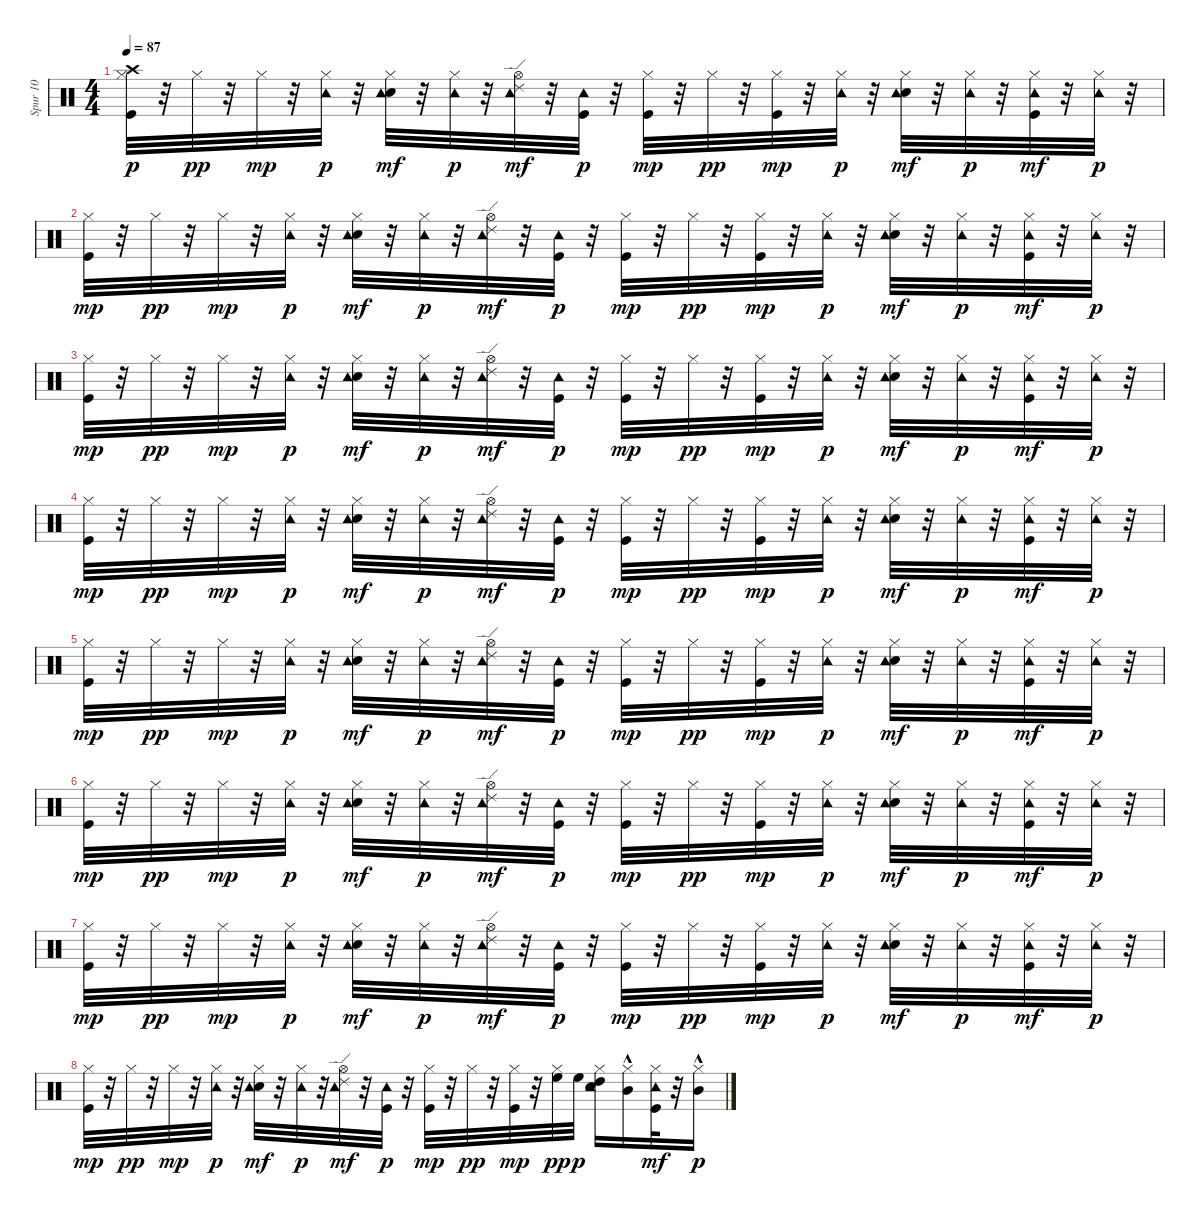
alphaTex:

\track ("Spur 10" "Spur 10") {instrument percussion}
\staff {score}
\articulation defaults
\ts (4 4)
\tempo 87
\clef neutral
\ks c
("Kick (hit)" "Hi-Hat (closed)" "Crash high (hit)").32{dy p} r.32 "Hi-Hat (closed)".32{dy pp} r.32 "Hi-Hat (closed)".32{dy mp} r.32 ("Hi-Hat (closed)" "Tambourine (hit)").32{dy p} r.32 ("Electric Snare (hit)" "Hi-Hat (closed)" "Tambourine (hit)").32{dy mf} r.32 ("Hi-Hat (closed)" "Tambourine (hit)").32{dy p} r.32 ("Hi-Hat (open)" "Tambourine (hit)" "Ride (edge) 2").32{dy mf} r.32 ("Kick (hit)" "Tambourine (hit)").32{dy p} r.32 ("Kick (hit)" "Hi-Hat (closed)").32{dy mp} r.32 "Hi-Hat (closed)".32{dy pp} r.32 ("Kick (hit)" "Hi-Hat (closed)").32{dy mp} r.32 ("Hi-Hat (closed)" "Tambourine (hit)").32{dy p} r.32 ("Electric Snare (hit)" "Hi-Hat (closed)" "Tambourine (hit)").32{dy mf} r.32 ("Hi-Hat (closed)" "Tambourine (hit)").32{dy p} r.32 ("Kick (hit)" "Hi-Hat (closed)" "Tambourine (hit)").32{dy mf} r.32 ("Hi-Hat (closed)" "Tambourine (hit)").32{dy p} r.32 |
("Kick (hit)" "Hi-Hat (closed)").32{dy mp} r.32 "Hi-Hat (closed)".32{dy pp} r.32 "Hi-Hat (closed)".32{dy mp} r.32 ("Hi-Hat (closed)" "Tambourine (hit)").32{dy p} r.32 ("Electric Snare (hit)" "Hi-Hat (closed)" "Tambourine (hit)").32{dy mf} r.32 ("Hi-Hat (closed)" "Tambourine (hit)").32{dy p} r.32 ("Hi-Hat (open)" "Tambourine (hit)" "Ride (edge) 2").32{dy mf} r.32 ("Kick (hit)" "Tambourine (hit)").32{dy p} r.32 ("Kick (hit)" "Hi-Hat (closed)").32{dy mp} r.32 "Hi-Hat (closed)".32{dy pp} r.32 ("Kick (hit)" "Hi-Hat (closed)").32{dy mp} r.32 ("Hi-Hat (closed)" "Tambourine (hit)").32{dy p} r.32 ("Electric Snare (hit)" "Hi-Hat (closed)" "Tambourine (hit)").32{dy mf} r.32 ("Hi-Hat (closed)" "Tambourine (hit)").32{dy p} r.32 ("Kick (hit)" "Hi-Hat (closed)" "Tambourine (hit)").32{dy mf} r.32 ("Hi-Hat (closed)" "Tambourine (hit)").32{dy p} r.32 |
("Kick (hit)" "Hi-Hat (closed)").32{dy mp} r.32 "Hi-Hat (closed)".32{dy pp} r.32 "Hi-Hat (closed)".32{dy mp} r.32 ("Hi-Hat (closed)" "Tambourine (hit)").32{dy p} r.32 ("Electric Snare (hit)" "Hi-Hat (closed)" "Tambourine (hit)").32{dy mf} r.32 ("Hi-Hat (closed)" "Tambourine (hit)").32{dy p} r.32 ("Hi-Hat (open)" "Tambourine (hit)" "Ride (edge) 2").32{dy mf} r.32 ("Kick (hit)" "Tambourine (hit)").32{dy p} r.32 ("Kick (hit)" "Hi-Hat (closed)").32{dy mp} r.32 "Hi-Hat (closed)".32{dy pp} r.32 ("Kick (hit)" "Hi-Hat (closed)").32{dy mp} r.32 ("Hi-Hat (closed)" "Tambourine (hit)").32{dy p} r.32 ("Electric Snare (hit)" "Hi-Hat (closed)" "Tambourine (hit)").32{dy mf} r.32 ("Hi-Hat (closed)" "Tambourine (hit)").32{dy p} r.32 ("Kick (hit)" "Hi-Hat (closed)" "Tambourine (hit)").32{dy mf} r.32 ("Hi-Hat (closed)" "Tambourine (hit)").32{dy p} r.32 |
("Kick (hit)" "Hi-Hat (closed)").32{dy mp} r.32 "Hi-Hat (closed)".32{dy pp} r.32 "Hi-Hat (closed)".32{dy mp} r.32 ("Hi-Hat (closed)" "Tambourine (hit)").32{dy p} r.32 ("Electric Snare (hit)" "Hi-Hat (closed)" "Tambourine (hit)").32{dy mf} r.32 ("Hi-Hat (closed)" "Tambourine (hit)").32{dy p} r.32 ("Hi-Hat (open)" "Tambourine (hit)" "Ride (edge) 2").32{dy mf} r.32 ("Kick (hit)" "Tambourine (hit)").32{dy p} r.32 ("Kick (hit)" "Hi-Hat (closed)").32{dy mp} r.32 "Hi-Hat (closed)".32{dy pp} r.32 ("Kick (hit)" "Hi-Hat (closed)").32{dy mp} r.32 ("Hi-Hat (closed)" "Tambourine (hit)").32{dy p} r.32 ("Electric Snare (hit)" "Hi-Hat (closed)" "Tambourine (hit)").32{dy mf} r.32 ("Hi-Hat (closed)" "Tambourine (hit)").32{dy p} r.32 ("Kick (hit)" "Hi-Hat (closed)" "Tambourine (hit)").32{dy mf} r.32 ("Hi-Hat (closed)" "Tambourine (hit)").32{dy p} r.32 |
("Kick (hit)" "Hi-Hat (closed)").32{dy mp} r.32 "Hi-Hat (closed)".32{dy pp} r.32 "Hi-Hat (closed)".32{dy mp} r.32 ("Hi-Hat (closed)" "Tambourine (hit)").32{dy p} r.32 ("Electric Snare (hit)" "Hi-Hat (closed)" "Tambourine (hit)").32{dy mf} r.32 ("Hi-Hat (closed)" "Tambourine (hit)").32{dy p} r.32 ("Hi-Hat (open)" "Tambourine (hit)" "Ride (edge) 2").32{dy mf} r.32 ("Kick (hit)" "Tambourine (hit)").32{dy p} r.32 ("Kick (hit)" "Hi-Hat (closed)").32{dy mp} r.32 "Hi-Hat (closed)".32{dy pp} r.32 ("Kick (hit)" "Hi-Hat (closed)").32{dy mp} r.32 ("Hi-Hat (closed)" "Tambourine (hit)").32{dy p} r.32 ("Electric Snare (hit)" "Hi-Hat (closed)" "Tambourine (hit)").32{dy mf} r.32 ("Hi-Hat (closed)" "Tambourine (hit)").32{dy p} r.32 ("Kick (hit)" "Hi-Hat (closed)" "Tambourine (hit)").32{dy mf} r.32 ("Hi-Hat (closed)" "Tambourine (hit)").32{dy p} r.32 |
("Kick (hit)" "Hi-Hat (closed)").32{dy mp} r.32 "Hi-Hat (closed)".32{dy pp} r.32 "Hi-Hat (closed)".32{dy mp} r.32 ("Hi-Hat (closed)" "Tambourine (hit)").32{dy p} r.32 ("Electric Snare (hit)" "Hi-Hat (closed)" "Tambourine (hit)").32{dy mf} r.32 ("Hi-Hat (closed)" "Tambourine (hit)").32{dy p} r.32 ("Hi-Hat (open)" "Tambourine (hit)" "Ride (edge) 2").32{dy mf} r.32 ("Kick (hit)" "Tambourine (hit)").32{dy p} r.32 ("Kick (hit)" "Hi-Hat (closed)").32{dy mp} r.32 "Hi-Hat (closed)".32{dy pp} r.32 ("Kick (hit)" "Hi-Hat (closed)").32{dy mp} r.32 ("Hi-Hat (closed)" "Tambourine (hit)").32{dy p} r.32 ("Electric Snare (hit)" "Hi-Hat (closed)" "Tambourine (hit)").32{dy mf} r.32 ("Hi-Hat (closed)" "Tambourine (hit)").32{dy p} r.32 ("Kick (hit)" "Hi-Hat (closed)" "Tambourine (hit)").32{dy mf} r.32 ("Hi-Hat (closed)" "Tambourine (hit)").32{dy p} r.32 |
("Kick (hit)" "Hi-Hat (closed)").32{dy mp} r.32 "Hi-Hat (closed)".32{dy pp} r.32 "Hi-Hat (closed)".32{dy mp} r.32 ("Hi-Hat (closed)" "Tambourine (hit)").32{dy p} r.32 ("Electric Snare (hit)" "Hi-Hat (closed)" "Tambourine (hit)").32{dy mf} r.32 ("Hi-Hat (closed)" "Tambourine (hit)").32{dy p} r.32 ("Hi-Hat (open)" "Tambourine (hit)" "Ride (edge) 2").32{dy mf} r.32 ("Kick (hit)" "Tambourine (hit)").32{dy p} r.32 ("Kick (hit)" "Hi-Hat (closed)").32{dy mp} r.32 "Hi-Hat (closed)".32{dy pp} r.32 ("Kick (hit)" "Hi-Hat (closed)").32{dy mp} r.32 ("Hi-Hat (closed)" "Tambourine (hit)").32{dy p} r.32 ("Electric Snare (hit)" "Hi-Hat (closed)" "Tambourine (hit)").32{dy mf} r.32 ("Hi-Hat (closed)" "Tambourine (hit)").32{dy p} r.32 ("Kick (hit)" "Hi-Hat (closed)" "Tambourine (hit)").32{dy mf} r.32 ("Hi-Hat (closed)" "Tambourine (hit)").32{dy p} r.32 |
("Kick (hit)" "Hi-Hat (closed)").32{dy mp} r.32 "Hi-Hat (closed)".32{dy pp} r.32 "Hi-Hat (closed)".32{dy mp} r.32 ("Hi-Hat (closed)" "Tambourine (hit)").32{dy p} r.32 ("Electric Snare (hit)" "Hi-Hat (closed)" "Tambourine (hit)").32{dy mf} r.32 ("Hi-Hat (closed)" "Tambourine (hit)").32{dy p} r.32 ("Hi-Hat (open)" "Tambourine (hit)" "Ride (edge) 2").32{dy mf} r.32 ("Kick (hit)" "Tambourine (hit)").32{dy p} r.32 ("Kick (hit)" "Hi-Hat (closed)").32{dy mp} r.32 "Hi-Hat (closed)".32{dy pp} r.32 ("Kick (hit)" "Hi-Hat (closed)").32{dy mp} r.32 ("Hi-Hat (closed)" "High Floor Tom (hit)").32{dy pp} "High Floor Tom (hit)".32{dy p} ("Electric Snare (hit)" "Hi-Hat (closed)" "Tambourine (hit)" "High Tom (hit)").16 ("Hi-Hat (closed)" "Mid Tom (hit)"{hac}).16 ("Kick (hit)" "Hi-Hat (closed)" "Tambourine (hit)").32{dy mf} r.32 ("Hi-Hat (closed)" "Mid Tom (hit)"{hac}).16{dy p}
